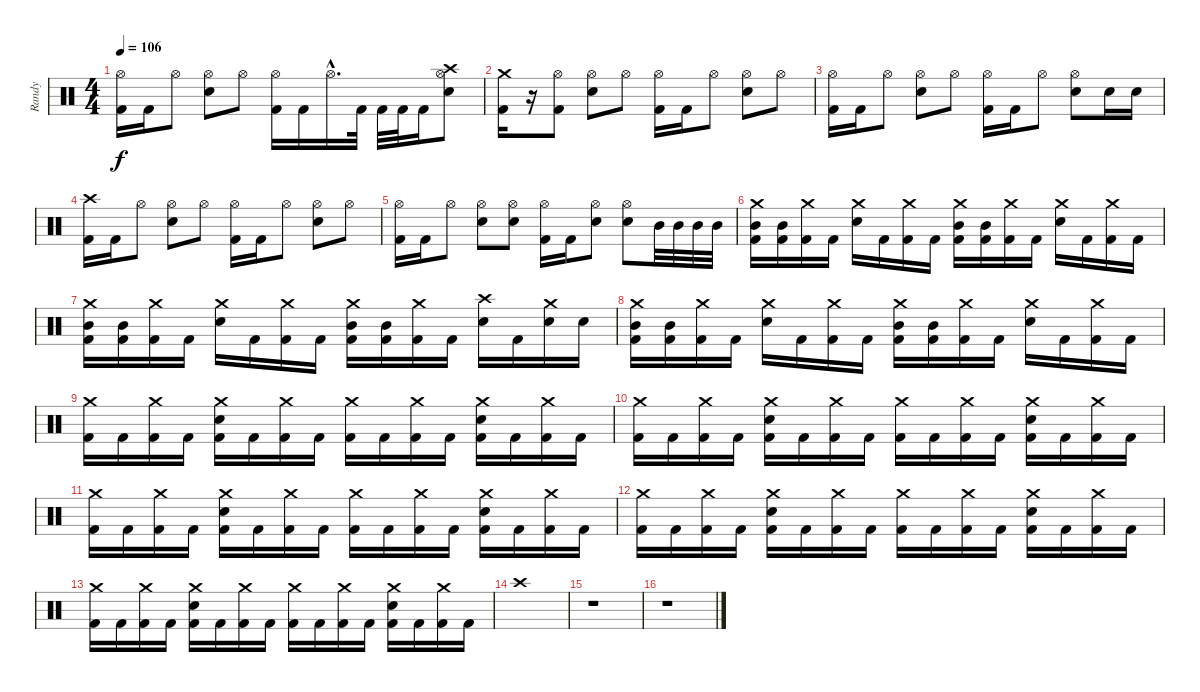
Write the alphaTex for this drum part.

\track ("Randy" "Randy") {instrument percussion}
\staff {score}
\articulation defaults
\ts (4 4)
\tempo 106
\clef neutral
\ks c
("Hi-Hat (open)" "Kick (hit) 2").16{dy f} "Kick (hit) 2".16 "Hi-Hat (open)".8 ("Hi-Hat (open)" "Electric Snare (hit)").8 "Hi-Hat (open)".8 ("Hi-Hat (open)" "Kick (hit) 2").16 "Kick (hit) 2".16 "Hi-Hat (open)"{hac}.16{d} "Kick (hit) 2".32 "Kick (hit) 2".32 "Kick (hit) 2".32 "Kick (hit) 2".16 ("Hi-Hat (open)" "Crash high (hit)" "Electric Snare (hit)").8 |
("Crash medium (hit)" "Kick (hit) 2").16 r.16 ("Hi-Hat (open)" "Kick (hit) 2").8 ("Hi-Hat (open)" "Electric Snare (hit)").8 "Hi-Hat (open)".8 ("Hi-Hat (open)" "Kick (hit) 2").16 "Kick (hit) 2".16 "Hi-Hat (open)".8 ("Hi-Hat (open)" "Electric Snare (hit)").8 "Hi-Hat (open)".8 |
("Hi-Hat (open)" "Kick (hit) 2").16 "Kick (hit) 2".16 "Hi-Hat (open)".8 ("Hi-Hat (open)" "Electric Snare (hit)").8 "Hi-Hat (open)".8 ("Hi-Hat (open)" "Kick (hit) 2").16 "Kick (hit) 2".16 "Hi-Hat (open)".8 ("Hi-Hat (open)" "Electric Snare (hit)").8 "Electric Snare (hit)".16 "Electric Snare (hit)".16 |
("Crash high (hit)" "Kick (hit) 2").16 "Kick (hit) 2".16 "Hi-Hat (open)".8 ("Hi-Hat (open)" "Electric Snare (hit)").8 "Hi-Hat (open)".8 ("Hi-Hat (open)" "Kick (hit) 2").16 "Kick (hit) 2".16 "Hi-Hat (open)".8 ("Hi-Hat (open)" "Electric Snare (hit)").8 "Hi-Hat (open)".8 |
("Hi-Hat (open)" "Kick (hit) 2").16 "Kick (hit) 2".16 "Hi-Hat (open)".8 ("Hi-Hat (open)" "Electric Snare (hit)").8 ("Hi-Hat (open)" "Electric Snare (hit)").8 ("Hi-Hat (open)" "Kick (hit) 2").16 "Kick (hit) 2".16 ("Hi-Hat (open)" "Electric Snare (hit)").8 ("Hi-Hat (open)" "Electric Snare (hit)").8 "Mid Tom (hit)".32 "Mid Tom (hit)".32 "Mid Tom (hit)".32 "Mid Tom (hit)".32 |
("Crash medium (hit)" "Mid Tom (hit)" "Kick (hit) 2").16 ("Mid Tom (hit)" "Kick (hit) 2").16 ("Crash medium (hit)" "Kick (hit) 2").16 "Kick (hit) 2".16 ("Crash medium (hit)" "Electric Snare (hit)").16 "Kick (hit) 2".16 ("Crash medium (hit)" "Kick (hit) 2").16 "Kick (hit) 2".16 ("Crash medium (hit)" "Mid Tom (hit)" "Kick (hit) 2").16 ("Mid Tom (hit)" "Kick (hit) 2").16 ("Crash medium (hit)" "Kick (hit) 2").16 "Kick (hit) 2".16 ("Crash medium (hit)" "Electric Snare (hit)").16 "Kick (hit) 2".16 ("Crash medium (hit)" "Kick (hit) 2").16 "Kick (hit) 2".16 |
("Crash medium (hit)" "Mid Tom (hit)" "Kick (hit) 2").16 ("Mid Tom (hit)" "Kick (hit) 2").16 ("Crash medium (hit)" "Kick (hit) 2").16 "Kick (hit) 2".16 ("Crash medium (hit)" "Electric Snare (hit)").16 "Kick (hit) 2".16 ("Crash medium (hit)" "Kick (hit) 2").16 "Kick (hit) 2".16 ("Crash medium (hit)" "Mid Tom (hit)" "Kick (hit) 2").16 ("Mid Tom (hit)" "Kick (hit) 2").16 ("Crash medium (hit)" "Kick (hit) 2").16 "Kick (hit) 2".16 ("Crash high (hit)" "Electric Snare (hit)").16 "Kick (hit) 2".16 ("Crash medium (hit)" "Electric Snare (hit)").16 "Electric Snare (hit)".16 |
("Crash medium (hit)" "Mid Tom (hit)" "Kick (hit) 2").16 ("Mid Tom (hit)" "Kick (hit) 2").16 ("Crash medium (hit)" "Kick (hit) 2").16 "Kick (hit) 2".16 ("Crash medium (hit)" "Electric Snare (hit)").16 "Kick (hit) 2".16 ("Crash medium (hit)" "Kick (hit) 2").16 "Kick (hit) 2".16 ("Crash medium (hit)" "Mid Tom (hit)" "Kick (hit) 2").16 ("Mid Tom (hit)" "Kick (hit) 2").16 ("Crash medium (hit)" "Kick (hit) 2").16 "Kick (hit) 2".16 ("Crash medium (hit)" "Electric Snare (hit)").16 "Kick (hit) 2".16 ("Crash medium (hit)" "Kick (hit) 2").16 "Kick (hit) 2".16 |
("Crash medium (hit)" "Kick (hit) 2").16 "Kick (hit) 2".16 ("Crash medium (hit)" "Kick (hit) 2").16 "Kick (hit) 2".16 ("Crash medium (hit)" "Electric Snare (hit)" "Kick (hit) 2").16 "Kick (hit) 2".16 ("Crash medium (hit)" "Kick (hit) 2").16 "Kick (hit) 2".16 ("Crash medium (hit)" "Kick (hit) 2").16 "Kick (hit) 2".16 ("Crash medium (hit)" "Kick (hit) 2").16 "Kick (hit) 2".16 ("Crash medium (hit)" "Electric Snare (hit)" "Kick (hit) 2").16 "Kick (hit) 2".16 ("Crash medium (hit)" "Kick (hit) 2").16 "Kick (hit) 2".16 |
("Crash medium (hit)" "Kick (hit) 2").16 "Kick (hit) 2".16 ("Crash medium (hit)" "Kick (hit) 2").16 "Kick (hit) 2".16 ("Crash medium (hit)" "Electric Snare (hit)" "Kick (hit) 2").16 "Kick (hit) 2".16 ("Crash medium (hit)" "Kick (hit) 2").16 "Kick (hit) 2".16 ("Crash medium (hit)" "Kick (hit) 2").16 "Kick (hit) 2".16 ("Crash medium (hit)" "Kick (hit) 2").16 "Kick (hit) 2".16 ("Crash medium (hit)" "Electric Snare (hit)" "Kick (hit) 2").16 "Kick (hit) 2".16 ("Crash medium (hit)" "Kick (hit) 2").16 "Kick (hit) 2".16 |
("Crash medium (hit)" "Kick (hit) 2").16 "Kick (hit) 2".16 ("Crash medium (hit)" "Kick (hit) 2").16 "Kick (hit) 2".16 ("Crash medium (hit)" "Electric Snare (hit)" "Kick (hit) 2").16 "Kick (hit) 2".16 ("Crash medium (hit)" "Kick (hit) 2").16 "Kick (hit) 2".16 ("Crash medium (hit)" "Kick (hit) 2").16 "Kick (hit) 2".16 ("Crash medium (hit)" "Kick (hit) 2").16 "Kick (hit) 2".16 ("Crash medium (hit)" "Electric Snare (hit)" "Kick (hit) 2").16 "Kick (hit) 2".16 ("Crash medium (hit)" "Kick (hit) 2").16 "Kick (hit) 2".16 |
("Crash medium (hit)" "Kick (hit) 2").16 "Kick (hit) 2".16 ("Crash medium (hit)" "Kick (hit) 2").16 "Kick (hit) 2".16 ("Crash medium (hit)" "Electric Snare (hit)" "Kick (hit) 2").16 "Kick (hit) 2".16 ("Crash medium (hit)" "Kick (hit) 2").16 "Kick (hit) 2".16 ("Crash medium (hit)" "Kick (hit) 2").16 "Kick (hit) 2".16 ("Crash medium (hit)" "Kick (hit) 2").16 "Kick (hit) 2".16 ("Crash medium (hit)" "Electric Snare (hit)" "Kick (hit) 2").16 "Kick (hit) 2".16 ("Crash medium (hit)" "Kick (hit) 2").16 "Kick (hit) 2".16 |
("Crash medium (hit)" "Kick (hit) 2").16 "Kick (hit) 2".16 ("Crash medium (hit)" "Kick (hit) 2").16 "Kick (hit) 2".16 ("Crash medium (hit)" "Electric Snare (hit)" "Kick (hit) 2").16 "Kick (hit) 2".16 ("Crash medium (hit)" "Kick (hit) 2").16 "Kick (hit) 2".16 ("Crash medium (hit)" "Kick (hit) 2").16 "Kick (hit) 2".16 ("Crash medium (hit)" "Kick (hit) 2").16 "Kick (hit) 2".16 ("Crash medium (hit)" "Electric Snare (hit)" "Kick (hit) 2").16 "Kick (hit) 2".16 ("Crash medium (hit)" "Kick (hit) 2").16 "Kick (hit) 2".16 |
"Crash high (hit)".1 |
r.1 |
r.1
